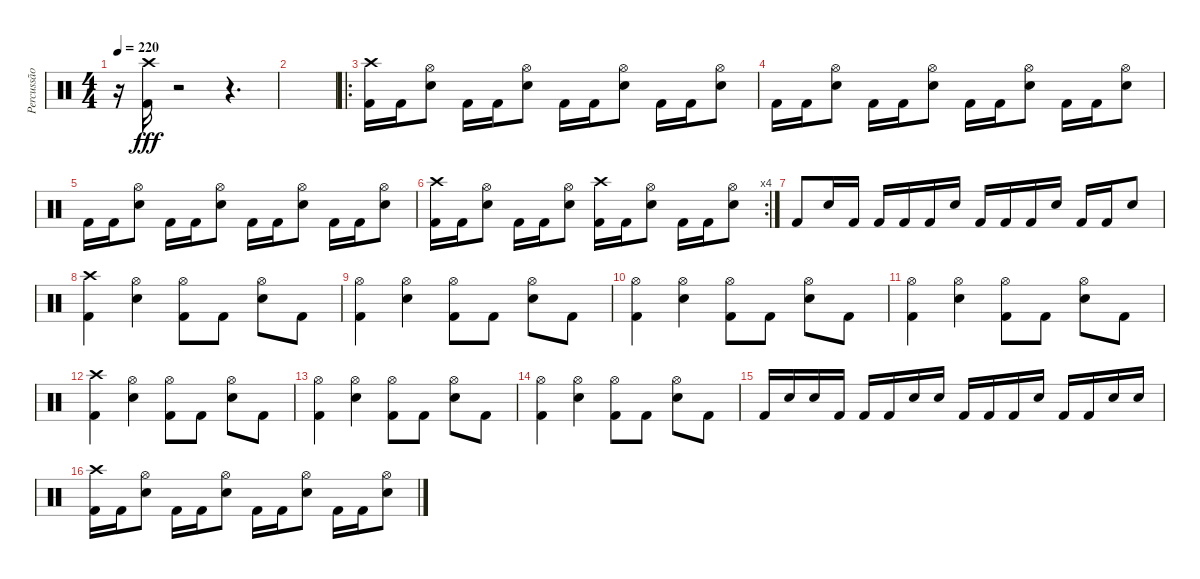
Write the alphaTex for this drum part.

\track ("Percussão" "Percussão") {instrument percussion}
\staff {score}
\articulation defaults
\ts (4 4)
\tempo 220
\clef neutral
\ks c
r.16{dy fff} ("Crash high (hit)" "Kick (hit) 2").16 r.2 r.4{d} |
|
\ro
("Crash high (hit)" "Kick (hit) 2").16{volume 16} "Kick (hit) 2".16 ("Hi-Hat (open)" "Electric Snare (hit)").8 "Kick (hit) 2".16 "Kick (hit) 2".16 ("Hi-Hat (open)" "Electric Snare (hit)").8 "Kick (hit) 2".16 "Kick (hit) 2".16 ("Hi-Hat (open)" "Electric Snare (hit)").8 "Kick (hit) 2".16 "Kick (hit) 2".16 ("Hi-Hat (open)" "Electric Snare (hit)").8 |
"Kick (hit) 2".16 "Kick (hit) 2".16 ("Hi-Hat (open)" "Electric Snare (hit)").8 "Kick (hit) 2".16 "Kick (hit) 2".16 ("Hi-Hat (open)" "Electric Snare (hit)").8 "Kick (hit) 2".16 "Kick (hit) 2".16 ("Hi-Hat (open)" "Electric Snare (hit)").8 "Kick (hit) 2".16 "Kick (hit) 2".16 ("Hi-Hat (open)" "Electric Snare (hit)").8 |
"Kick (hit) 2".16 "Kick (hit) 2".16 ("Hi-Hat (open)" "Electric Snare (hit)").8 "Kick (hit) 2".16 "Kick (hit) 2".16 ("Hi-Hat (open)" "Electric Snare (hit)").8 "Kick (hit) 2".16 "Kick (hit) 2".16 ("Hi-Hat (open)" "Electric Snare (hit)").8 "Kick (hit) 2".16 "Kick (hit) 2".16 ("Hi-Hat (open)" "Electric Snare (hit)").8 |
\rc 4
("Crash high (hit)" "Kick (hit) 2").16 "Kick (hit) 2".16 ("Hi-Hat (open)" "Electric Snare (hit)").8 "Kick (hit) 2".16 "Kick (hit) 2".16 ("Hi-Hat (open)" "Electric Snare (hit)").8 ("Crash high (hit)" "Kick (hit) 2").16 "Kick (hit) 2".16 ("Hi-Hat (open)" "Electric Snare (hit)").8 "Kick (hit) 2".16 "Kick (hit) 2".16 ("Hi-Hat (open)" "Electric Snare (hit)").8 |
"Kick (hit) 2".8 "Electric Snare (hit)".16 "Kick (hit) 2".16 "Kick (hit) 2".16 "Kick (hit) 2".16 "Kick (hit) 2".16 "Electric Snare (hit)".16 "Kick (hit) 2".16 "Kick (hit) 2".16 "Kick (hit) 2".16 "Electric Snare (hit)".16 "Kick (hit) 2".16 "Kick (hit) 2".16 "Electric Snare (hit)".8 |
("Crash high (hit)" "Kick (hit) 2").4 ("Hi-Hat (open)" "Electric Snare (hit)").4 ("Hi-Hat (open)" "Kick (hit) 2").8 "Kick (hit) 2".8 ("Hi-Hat (open)" "Electric Snare (hit)").8 "Kick (hit) 2".8 |
("Hi-Hat (open)" "Kick (hit) 2").4 ("Hi-Hat (open)" "Electric Snare (hit)").4 ("Hi-Hat (open)" "Kick (hit) 2").8 "Kick (hit) 2".8 ("Hi-Hat (open)" "Electric Snare (hit)").8 "Kick (hit) 2".8 |
("Hi-Hat (open)" "Kick (hit) 2").4 ("Hi-Hat (open)" "Electric Snare (hit)").4 ("Hi-Hat (open)" "Kick (hit) 2").8 "Kick (hit) 2".8 ("Hi-Hat (open)" "Electric Snare (hit)").8 "Kick (hit) 2".8 |
("Hi-Hat (open)" "Kick (hit) 2").4 ("Hi-Hat (open)" "Electric Snare (hit)").4 ("Hi-Hat (open)" "Kick (hit) 2").8 "Kick (hit) 2".8 ("Hi-Hat (open)" "Electric Snare (hit)").8 "Kick (hit) 2".8 |
("Crash high (hit)" "Kick (hit) 2").4 ("Hi-Hat (open)" "Electric Snare (hit)").4 ("Hi-Hat (open)" "Kick (hit) 2").8 "Kick (hit) 2".8 ("Hi-Hat (open)" "Electric Snare (hit)").8 "Kick (hit) 2".8 |
("Hi-Hat (open)" "Kick (hit) 2").4 ("Hi-Hat (open)" "Electric Snare (hit)").4 ("Hi-Hat (open)" "Kick (hit) 2").8 "Kick (hit) 2".8 ("Hi-Hat (open)" "Electric Snare (hit)").8 "Kick (hit) 2".8 |
("Hi-Hat (open)" "Kick (hit) 2").4 ("Hi-Hat (open)" "Electric Snare (hit)").4 ("Hi-Hat (open)" "Kick (hit) 2").8 "Kick (hit) 2".8 ("Hi-Hat (open)" "Electric Snare (hit)").8 "Kick (hit) 2".8 |
"Kick (hit) 2".16 "Electric Snare (hit)".16 "Electric Snare (hit)".16 "Kick (hit) 2".16 "Kick (hit) 2".16 "Kick (hit) 2".16 "Electric Snare (hit)".16 "Electric Snare (hit)".16 "Kick (hit) 2".16 "Kick (hit) 2".16 "Kick (hit) 2".16 "Electric Snare (hit)".16 "Kick (hit) 2".16 "Kick (hit) 2".16 "Electric Snare (hit)".16 "Electric Snare (hit)".16 |
("Crash high (hit)" "Kick (hit) 2").16{volume 16} "Kick (hit) 2".16 ("Hi-Hat (open)" "Electric Snare (hit)").8 "Kick (hit) 2".16 "Kick (hit) 2".16 ("Hi-Hat (open)" "Electric Snare (hit)").8 "Kick (hit) 2".16 "Kick (hit) 2".16 ("Hi-Hat (open)" "Electric Snare (hit)").8 "Kick (hit) 2".16 "Kick (hit) 2".16 ("Hi-Hat (open)" "Electric Snare (hit)").8
